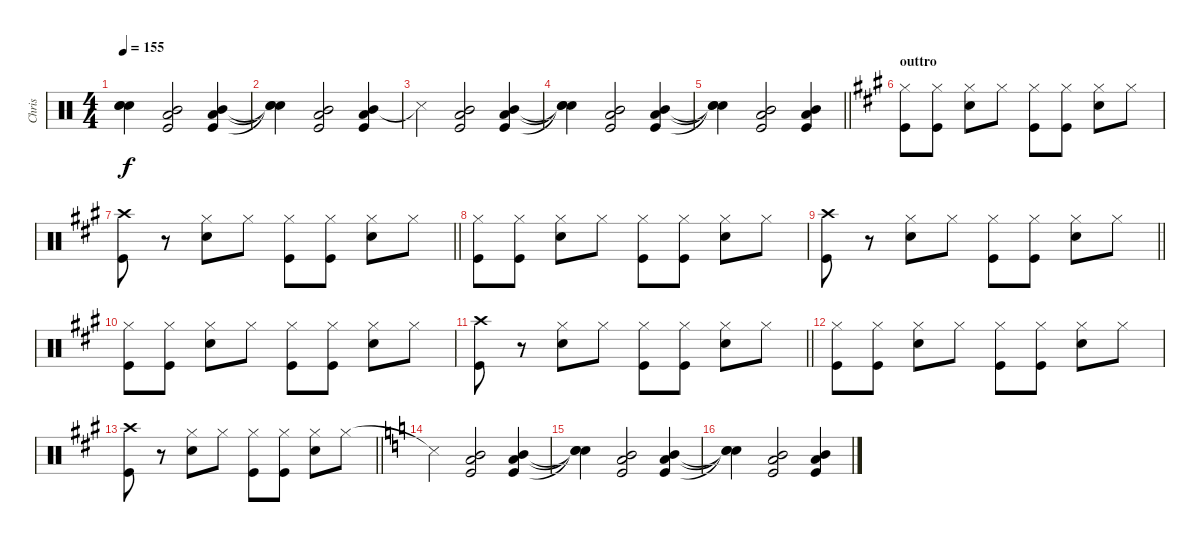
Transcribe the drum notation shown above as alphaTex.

\track ("Chris" "Chris") {instrument percussion}
\staff {score}
\articulation defaults
\ts (4 4)
\tempo 155
\clef neutral
\ks c
("Snare (hit)"{t} "Snare (hit)"{t} "Snare (hit)"{t}).4{dy f} ("Mid Tom (hit)" "Kick (hit)" "Low Floor Tom (hit)").2 ("Mid Tom (hit)" "Kick (hit)" "Low Floor Tom (hit)").4 |
("Snare (hit)"{t} "Snare (hit)"{t} "Snare (hit)"{t}).4 ("Mid Tom (hit)" "Kick (hit)" "Low Floor Tom (hit)").2 ("Mid Tom (hit)" "Kick (hit)" "Low Floor Tom (hit)").4 |
"Snare (side stick) 3"{t}.4 ("Mid Tom (hit)" "Kick (hit)" "Low Floor Tom (hit)").2 ("Mid Tom (hit)" "Kick (hit)" "Low Floor Tom (hit)").4 |
("Snare (hit)"{t} "Snare (hit)"{t} "Snare (hit)"{t}).4 ("Mid Tom (hit)" "Kick (hit)" "Low Floor Tom (hit)").2 ("Mid Tom (hit)" "Kick (hit)" "Low Floor Tom (hit)").4 |
\barLineRight lightlight
("Snare (hit)"{t} "Snare (hit)"{t} "Snare (hit)"{t}).4 ("Mid Tom (hit)" "Kick (hit)" "Low Floor Tom (hit)").2 ("Mid Tom (hit)" "Kick (hit)" "Low Floor Tom (hit)").4 |
\section ("" "outtro")
\ks a
("Hi-Hat (closed)" "Kick (hit)").8 ("Hi-Hat (closed)" "Kick (hit)").8 ("Hi-Hat (closed)" "Snare (hit) 2").8 "Hi-Hat (closed)".8 ("Hi-Hat (closed)" "Kick (hit)").8 ("Hi-Hat (closed)" "Kick (hit)").8 ("Hi-Hat (closed)" "Snare (hit) 2").8 "Hi-Hat (closed)".8 |
\barLineRight lightlight
("Crash high (hit)" "Kick (hit)").8 r.8 ("Hi-Hat (closed)" "Snare (hit) 2").8 "Hi-Hat (closed)".8 ("Hi-Hat (closed)" "Kick (hit)").8 ("Hi-Hat (closed)" "Kick (hit)").8 ("Hi-Hat (closed)" "Snare (hit) 2").8 "Hi-Hat (closed)".8 |
("Hi-Hat (closed)" "Kick (hit)").8 ("Hi-Hat (closed)" "Kick (hit)").8 ("Hi-Hat (closed)" "Snare (hit) 2").8 "Hi-Hat (closed)".8 ("Hi-Hat (closed)" "Kick (hit)").8 ("Hi-Hat (closed)" "Kick (hit)").8 ("Hi-Hat (closed)" "Snare (hit) 2").8 "Hi-Hat (closed)".8 |
\barLineRight lightlight
("Crash high (hit)" "Kick (hit)").8 r.8 ("Hi-Hat (closed)" "Snare (hit) 2").8 "Hi-Hat (closed)".8 ("Hi-Hat (closed)" "Kick (hit)").8 ("Hi-Hat (closed)" "Kick (hit)").8 ("Hi-Hat (closed)" "Snare (hit) 2").8 "Hi-Hat (closed)".8 |
("Hi-Hat (closed)" "Kick (hit)").8 ("Hi-Hat (closed)" "Kick (hit)").8 ("Hi-Hat (closed)" "Snare (hit) 2").8 "Hi-Hat (closed)".8 ("Hi-Hat (closed)" "Kick (hit)").8 ("Hi-Hat (closed)" "Kick (hit)").8 ("Hi-Hat (closed)" "Snare (hit) 2").8 "Hi-Hat (closed)".8 |
\barLineRight lightlight
("Crash high (hit)" "Kick (hit)").8 r.8 ("Hi-Hat (closed)" "Snare (hit) 2").8 "Hi-Hat (closed)".8 ("Hi-Hat (closed)" "Kick (hit)").8 ("Hi-Hat (closed)" "Kick (hit)").8 ("Hi-Hat (closed)" "Snare (hit) 2").8 "Hi-Hat (closed)".8 |
("Hi-Hat (closed)" "Kick (hit)").8 ("Hi-Hat (closed)" "Kick (hit)").8 ("Hi-Hat (closed)" "Snare (hit) 2").8 "Hi-Hat (closed)".8 ("Hi-Hat (closed)" "Kick (hit)").8 ("Hi-Hat (closed)" "Kick (hit)").8 ("Hi-Hat (closed)" "Snare (hit) 2").8 "Hi-Hat (closed)".8 |
\barLineRight lightlight
("Crash high (hit)" "Kick (hit)").8 r.8 ("Hi-Hat (closed)" "Snare (hit) 2").8 "Hi-Hat (closed)".8 ("Hi-Hat (closed)" "Kick (hit)").8 ("Hi-Hat (closed)" "Kick (hit)").8 ("Hi-Hat (closed)" "Snare (hit) 2").8 "Hi-Hat (closed)".8 |
\ks c "Snare (side stick) 3"{t}.4
("Mid Tom (hit)" "Kick (hit)" "Low Floor Tom (hit)").2 ("Mid Tom (hit)" "Kick (hit)" "Low Floor Tom (hit)").4 |
("Snare (hit)"{t} "Snare (hit)"{t} "Snare (hit)"{t}).4 ("Mid Tom (hit)" "Kick (hit)" "Low Floor Tom (hit)").2 ("Mid Tom (hit)" "Kick (hit)" "Low Floor Tom (hit)").4 |
("Snare (hit)"{t} "Snare (hit)"{t} "Snare (hit)"{t}).4 ("Mid Tom (hit)" "Kick (hit)" "Low Floor Tom (hit)").2 ("Mid Tom (hit)" "Kick (hit)" "Low Floor Tom (hit)").4
